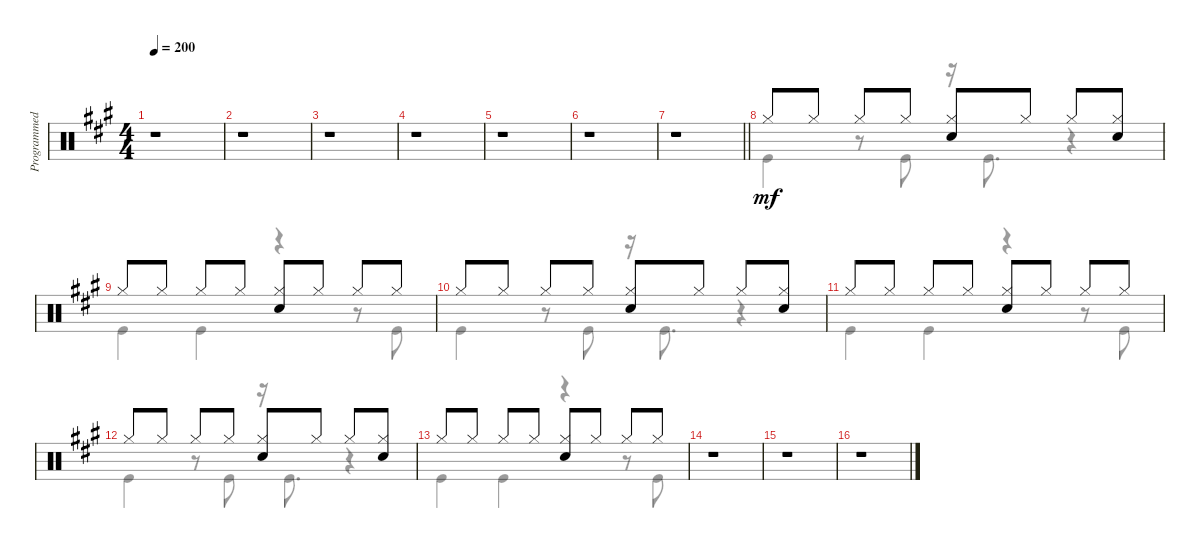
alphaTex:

\track ("Programmed Drums" "Programmed") {instrument percussion}
\staff {score}
\articulation defaults
\voice
\ts (4 4)
\tempo 200
\clef neutral
\ks a
r.1{dy mf} |
r.1 |
r.1 |
r.1 |
r.1 |
r.1 |
\barLineRight lightlight
r.1 |
\section ("" "")
"Hi-Hat (closed)".8 "Hi-Hat (closed)".8 "Hi-Hat (closed)".8 "Hi-Hat (closed)".8 ("Hi-Hat (closed)" "Snare (hit) 2").8 "Hi-Hat (closed)".8 "Hi-Hat (closed)".8 ("Hi-Hat (closed)" "Snare (hit) 2").8 |
"Hi-Hat (closed)".8 "Hi-Hat (closed)".8 "Hi-Hat (closed)".8 "Hi-Hat (closed)".8 ("Hi-Hat (closed)" "Snare (hit) 2").8 "Hi-Hat (closed)".8 "Hi-Hat (closed)".8 "Hi-Hat (closed)".8 |
"Hi-Hat (closed)".8 "Hi-Hat (closed)".8 "Hi-Hat (closed)".8 "Hi-Hat (closed)".8 ("Hi-Hat (closed)" "Snare (hit) 2").8 "Hi-Hat (closed)".8 "Hi-Hat (closed)".8 ("Hi-Hat (closed)" "Snare (hit) 2").8 |
"Hi-Hat (closed)".8 "Hi-Hat (closed)".8 "Hi-Hat (closed)".8 "Hi-Hat (closed)".8 ("Hi-Hat (closed)" "Snare (hit) 2").8 "Hi-Hat (closed)".8 "Hi-Hat (closed)".8 "Hi-Hat (closed)".8 |
"Hi-Hat (closed)".8 "Hi-Hat (closed)".8 "Hi-Hat (closed)".8 "Hi-Hat (closed)".8 ("Hi-Hat (closed)" "Snare (hit) 2").8 "Hi-Hat (closed)".8 "Hi-Hat (closed)".8 ("Hi-Hat (closed)" "Snare (hit) 2").8 |
"Hi-Hat (closed)".8 "Hi-Hat (closed)".8 "Hi-Hat (closed)".8 "Hi-Hat (closed)".8 ("Hi-Hat (closed)" "Snare (hit) 2").8 "Hi-Hat (closed)".8 "Hi-Hat (closed)".8 "Hi-Hat (closed)".8 |
r.1 |
r.1 |
r.1
\voice
\clef neutral
\ottava regular
\simile none
\ks a
|
|
|
|
|
|
\barLineRight lightlight
|
"Kick (hit)".4 r.8 "Kick (hit)".8 r.16 "Kick (hit)".8{d} r.4 |
"Kick (hit)".4 "Kick (hit)".4 r.4 r.8 "Kick (hit)".8 |
"Kick (hit)".4 r.8 "Kick (hit)".8 r.16 "Kick (hit)".8{d} r.4 |
"Kick (hit)".4 "Kick (hit)".4 r.4 r.8 "Kick (hit)".8 |
"Kick (hit)".4 r.8 "Kick (hit)".8 r.16 "Kick (hit)".8{d} r.4 |
"Kick (hit)".4 "Kick (hit)".4 r.4 r.8 "Kick (hit)".8 |
|
|
